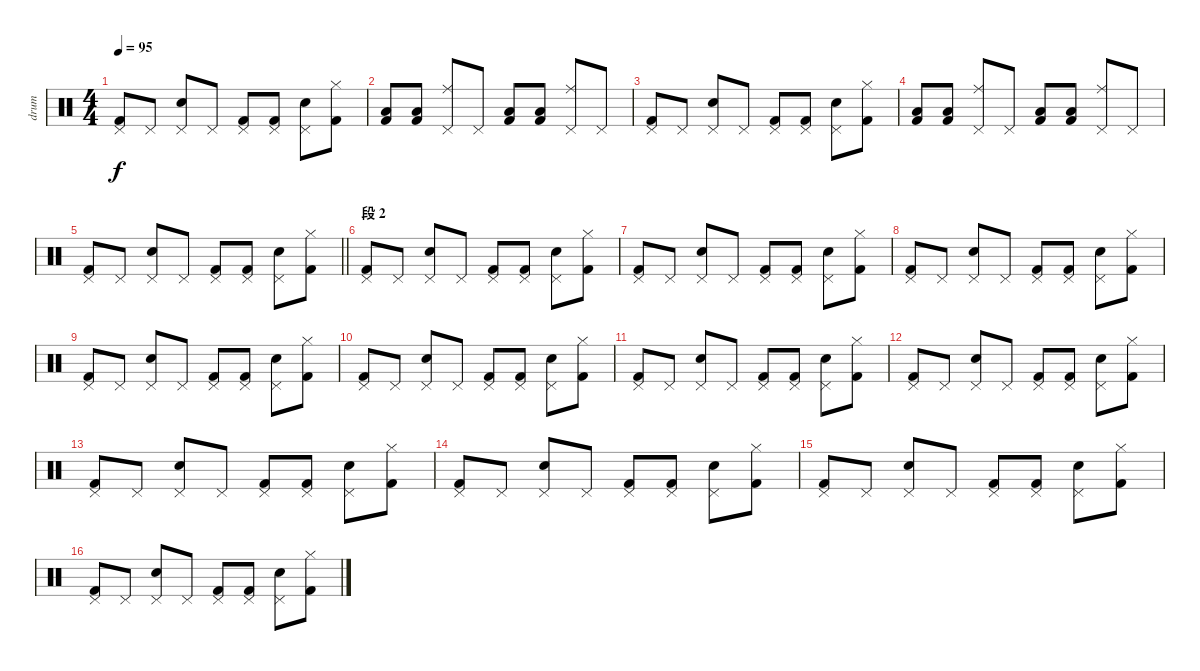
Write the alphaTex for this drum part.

\track ("drum" "drum") {instrument percussion}
\staff {score}
\articulation defaults
\ts (4 4)
\tempo 95
\clef neutral
\ks c
("Pedal Hi-Hat (hit)" "Kick (hit) 2").8{dy f} "Pedal Hi-Hat (hit)".8 ("Pedal Hi-Hat (hit)" "Hand Clap (hit)").8 "Pedal Hi-Hat (hit)".8 ("Pedal Hi-Hat (hit)" "Kick (hit) 2").8 ("Pedal Hi-Hat (hit)" "Kick (hit) 2").8 ("Pedal Hi-Hat (hit)" "Hand Clap (hit)").8 ("Hi-Hat (closed)" "Kick (hit) 2").8 |
("Kick (hit) 2" "Low Tom (hit)").8 ("Kick (hit) 2" "Low Tom (hit)").8 ("Pedal Hi-Hat (hit)" "Ride (middle)").8 "Pedal Hi-Hat (hit)".8 ("Kick (hit) 2" "Low Tom (hit)").8 ("Kick (hit) 2" "Low Tom (hit)").8 ("Pedal Hi-Hat (hit)" "Ride (middle)").8 "Pedal Hi-Hat (hit)".8 |
("Pedal Hi-Hat (hit)" "Kick (hit) 2").8 "Pedal Hi-Hat (hit)".8 ("Pedal Hi-Hat (hit)" "Hand Clap (hit)").8 "Pedal Hi-Hat (hit)".8 ("Pedal Hi-Hat (hit)" "Kick (hit) 2").8 ("Pedal Hi-Hat (hit)" "Kick (hit) 2").8 ("Pedal Hi-Hat (hit)" "Hand Clap (hit)").8 ("Hi-Hat (closed)" "Kick (hit) 2").8 |
("Kick (hit) 2" "Low Tom (hit)").8 ("Kick (hit) 2" "Low Tom (hit)").8 ("Pedal Hi-Hat (hit)" "Ride (middle)").8 "Pedal Hi-Hat (hit)".8 ("Kick (hit) 2" "Low Tom (hit)").8 ("Kick (hit) 2" "Low Tom (hit)").8 ("Pedal Hi-Hat (hit)" "Ride (middle)").8 "Pedal Hi-Hat (hit)".8 |
\barLineRight lightlight
("Pedal Hi-Hat (hit)" "Kick (hit) 2").8 "Pedal Hi-Hat (hit)".8 ("Pedal Hi-Hat (hit)" "Hand Clap (hit)").8 "Pedal Hi-Hat (hit)".8 ("Pedal Hi-Hat (hit)" "Kick (hit) 2").8 ("Pedal Hi-Hat (hit)" "Kick (hit) 2").8 ("Pedal Hi-Hat (hit)" "Hand Clap (hit)").8 ("Hi-Hat (closed)" "Kick (hit) 2").8 |
\section ("" "段 2")
("Pedal Hi-Hat (hit)" "Kick (hit) 2").8 "Pedal Hi-Hat (hit)".8 ("Pedal Hi-Hat (hit)" "Hand Clap (hit)").8 "Pedal Hi-Hat (hit)".8 ("Pedal Hi-Hat (hit)" "Kick (hit) 2").8 ("Pedal Hi-Hat (hit)" "Kick (hit) 2").8 ("Pedal Hi-Hat (hit)" "Hand Clap (hit)").8 ("Hi-Hat (closed)" "Kick (hit) 2").8 |
("Pedal Hi-Hat (hit)" "Kick (hit) 2").8 "Pedal Hi-Hat (hit)".8 ("Pedal Hi-Hat (hit)" "Hand Clap (hit)").8 "Pedal Hi-Hat (hit)".8 ("Pedal Hi-Hat (hit)" "Kick (hit) 2").8 ("Pedal Hi-Hat (hit)" "Kick (hit) 2").8 ("Pedal Hi-Hat (hit)" "Hand Clap (hit)").8 ("Hi-Hat (closed)" "Kick (hit) 2").8 |
("Pedal Hi-Hat (hit)" "Kick (hit) 2").8 "Pedal Hi-Hat (hit)".8 ("Pedal Hi-Hat (hit)" "Hand Clap (hit)").8 "Pedal Hi-Hat (hit)".8 ("Pedal Hi-Hat (hit)" "Kick (hit) 2").8 ("Pedal Hi-Hat (hit)" "Kick (hit) 2").8 ("Pedal Hi-Hat (hit)" "Hand Clap (hit)").8 ("Hi-Hat (closed)" "Kick (hit) 2").8 |
("Pedal Hi-Hat (hit)" "Kick (hit) 2").8 "Pedal Hi-Hat (hit)".8 ("Pedal Hi-Hat (hit)" "Hand Clap (hit)").8 "Pedal Hi-Hat (hit)".8 ("Pedal Hi-Hat (hit)" "Kick (hit) 2").8 ("Pedal Hi-Hat (hit)" "Kick (hit) 2").8 ("Pedal Hi-Hat (hit)" "Hand Clap (hit)").8 ("Hi-Hat (closed)" "Kick (hit) 2").8 |
("Pedal Hi-Hat (hit)" "Kick (hit) 2").8 "Pedal Hi-Hat (hit)".8 ("Pedal Hi-Hat (hit)" "Hand Clap (hit)").8 "Pedal Hi-Hat (hit)".8 ("Pedal Hi-Hat (hit)" "Kick (hit) 2").8 ("Pedal Hi-Hat (hit)" "Kick (hit) 2").8 ("Pedal Hi-Hat (hit)" "Hand Clap (hit)").8 ("Hi-Hat (closed)" "Kick (hit) 2").8 |
("Pedal Hi-Hat (hit)" "Kick (hit) 2").8 "Pedal Hi-Hat (hit)".8 ("Pedal Hi-Hat (hit)" "Hand Clap (hit)").8 "Pedal Hi-Hat (hit)".8 ("Pedal Hi-Hat (hit)" "Kick (hit) 2").8 ("Pedal Hi-Hat (hit)" "Kick (hit) 2").8 ("Pedal Hi-Hat (hit)" "Hand Clap (hit)").8 ("Hi-Hat (closed)" "Kick (hit) 2").8 |
("Pedal Hi-Hat (hit)" "Kick (hit) 2").8 "Pedal Hi-Hat (hit)".8 ("Pedal Hi-Hat (hit)" "Hand Clap (hit)").8 "Pedal Hi-Hat (hit)".8 ("Pedal Hi-Hat (hit)" "Kick (hit) 2").8 ("Pedal Hi-Hat (hit)" "Kick (hit) 2").8 ("Pedal Hi-Hat (hit)" "Hand Clap (hit)").8 ("Hi-Hat (closed)" "Kick (hit) 2").8 |
("Pedal Hi-Hat (hit)" "Kick (hit) 2").8 "Pedal Hi-Hat (hit)".8 ("Pedal Hi-Hat (hit)" "Hand Clap (hit)").8 "Pedal Hi-Hat (hit)".8 ("Pedal Hi-Hat (hit)" "Kick (hit) 2").8 ("Pedal Hi-Hat (hit)" "Kick (hit) 2").8 ("Pedal Hi-Hat (hit)" "Hand Clap (hit)").8 ("Hi-Hat (closed)" "Kick (hit) 2").8 |
("Pedal Hi-Hat (hit)" "Kick (hit) 2").8 "Pedal Hi-Hat (hit)".8 ("Pedal Hi-Hat (hit)" "Hand Clap (hit)").8 "Pedal Hi-Hat (hit)".8 ("Pedal Hi-Hat (hit)" "Kick (hit) 2").8 ("Pedal Hi-Hat (hit)" "Kick (hit) 2").8 ("Pedal Hi-Hat (hit)" "Hand Clap (hit)").8 ("Hi-Hat (closed)" "Kick (hit) 2").8 |
("Pedal Hi-Hat (hit)" "Kick (hit) 2").8 "Pedal Hi-Hat (hit)".8 ("Pedal Hi-Hat (hit)" "Hand Clap (hit)").8 "Pedal Hi-Hat (hit)".8 ("Pedal Hi-Hat (hit)" "Kick (hit) 2").8 ("Pedal Hi-Hat (hit)" "Kick (hit) 2").8 ("Pedal Hi-Hat (hit)" "Hand Clap (hit)").8 ("Hi-Hat (closed)" "Kick (hit) 2").8 |
("Pedal Hi-Hat (hit)" "Kick (hit) 2").8 "Pedal Hi-Hat (hit)".8 ("Pedal Hi-Hat (hit)" "Hand Clap (hit)").8 "Pedal Hi-Hat (hit)".8 ("Pedal Hi-Hat (hit)" "Kick (hit) 2").8 ("Pedal Hi-Hat (hit)" "Kick (hit) 2").8 ("Pedal Hi-Hat (hit)" "Hand Clap (hit)").8 ("Hi-Hat (closed)" "Kick (hit) 2").8
